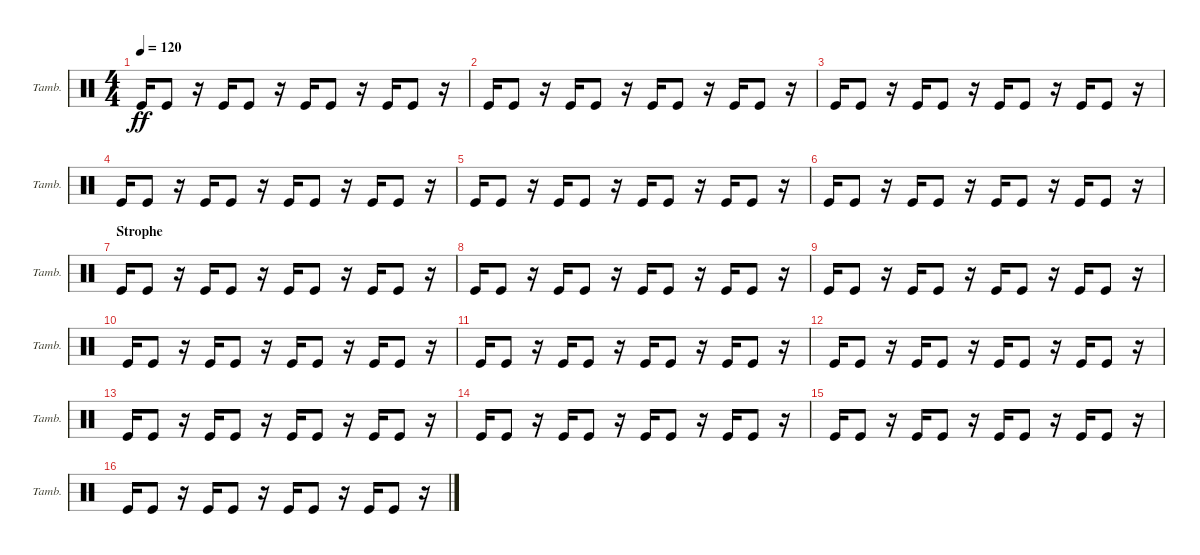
\bracketExtendMode groupsimilarinstruments
\singleTrackTrackNamePolicy allsystems
\multiTrackTrackNamePolicy allsystems
\firstSystemTrackNameOrientation horizontal
\otherSystemsTrackNameOrientation horizontal
\track ("Tambourine" "Tamb.") {instrument percussion}
\staff {score}
\articulation defaults
\ts (4 4)
\tempo 120
\clef neutral
\scale
0.333333
\ks c "Kick (hit)".16{dy ff} "Kick (hit)".8
r.16 "Kick (hit)".16 "Kick (hit)".8 r.16 "Kick (hit)".16 "Kick (hit)".8 r.16 "Kick (hit)".16 "Kick (hit)".8 r.16 |
\scale
0.333333 "Kick (hit)".16 "Kick (hit)".8 r.16 "Kick (hit)".16 "Kick (hit)".8 r.16 "Kick (hit)".16 "Kick (hit)".8 r.16 "Kick (hit)".16 "Kick (hit)".8 r.16 |
\scale
0.333333 "Kick (hit)".16 "Kick (hit)".8 r.16 "Kick (hit)".16 "Kick (hit)".8 r.16 "Kick (hit)".16 "Kick (hit)".8 r.16 "Kick (hit)".16 "Kick (hit)".8 r.16 |
\scale
0.333333 "Kick (hit)".16 "Kick (hit)".8 r.16 "Kick (hit)".16 "Kick (hit)".8 r.16 "Kick (hit)".16 "Kick (hit)".8 r.16 "Kick (hit)".16 "Kick (hit)".8 r.16 |
\scale
0.333333 "Kick (hit)".16 "Kick (hit)".8 r.16 "Kick (hit)".16 "Kick (hit)".8 r.16 "Kick (hit)".16 "Kick (hit)".8 r.16 "Kick (hit)".16 "Kick (hit)".8 r.16 |
\scale
0.333333 "Kick (hit)".16 "Kick (hit)".8 r.16 "Kick (hit)".16 "Kick (hit)".8 r.16 "Kick (hit)".16 "Kick (hit)".8 r.16 "Kick (hit)".16 "Kick (hit)".8 r.16 |
\section ("" "Strophe")
\scale
0.333333 "Kick (hit)".16 "Kick (hit)".8 r.16 "Kick (hit)".16 "Kick (hit)".8 r.16 "Kick (hit)".16 "Kick (hit)".8 r.16 "Kick (hit)".16 "Kick (hit)".8 r.16 |
\scale
0.333333 "Kick (hit)".16 "Kick (hit)".8 r.16 "Kick (hit)".16 "Kick (hit)".8 r.16 "Kick (hit)".16 "Kick (hit)".8 r.16 "Kick (hit)".16 "Kick (hit)".8 r.16 |
\scale
0.333333 "Kick (hit)".16 "Kick (hit)".8 r.16 "Kick (hit)".16 "Kick (hit)".8 r.16 "Kick (hit)".16 "Kick (hit)".8 r.16 "Kick (hit)".16 "Kick (hit)".8 r.16 |
\scale
0.333333 "Kick (hit)".16 "Kick (hit)".8 r.16 "Kick (hit)".16 "Kick (hit)".8 r.16 "Kick (hit)".16 "Kick (hit)".8 r.16 "Kick (hit)".16 "Kick (hit)".8 r.16 |
\scale
0.333333 "Kick (hit)".16 "Kick (hit)".8 r.16 "Kick (hit)".16 "Kick (hit)".8 r.16 "Kick (hit)".16 "Kick (hit)".8 r.16 "Kick (hit)".16 "Kick (hit)".8 r.16 |
\scale
0.333333 "Kick (hit)".16 "Kick (hit)".8 r.16 "Kick (hit)".16 "Kick (hit)".8 r.16 "Kick (hit)".16 "Kick (hit)".8 r.16 "Kick (hit)".16 "Kick (hit)".8 r.16 |
\scale
0.333333 "Kick (hit)".16 "Kick (hit)".8 r.16 "Kick (hit)".16 "Kick (hit)".8 r.16 "Kick (hit)".16 "Kick (hit)".8 r.16 "Kick (hit)".16 "Kick (hit)".8 r.16 |
\scale
0.333333 "Kick (hit)".16 "Kick (hit)".8 r.16 "Kick (hit)".16 "Kick (hit)".8 r.16 "Kick (hit)".16 "Kick (hit)".8 r.16 "Kick (hit)".16 "Kick (hit)".8 r.16 |
\scale
0.333333 "Kick (hit)".16 "Kick (hit)".8 r.16 "Kick (hit)".16 "Kick (hit)".8 r.16 "Kick (hit)".16 "Kick (hit)".8 r.16 "Kick (hit)".16 "Kick (hit)".8 r.16 |
\scale
0.333333 "Kick (hit)".16 "Kick (hit)".8 r.16 "Kick (hit)".16 "Kick (hit)".8 r.16 "Kick (hit)".16 "Kick (hit)".8 r.16 "Kick (hit)".16 "Kick (hit)".8 r.16
